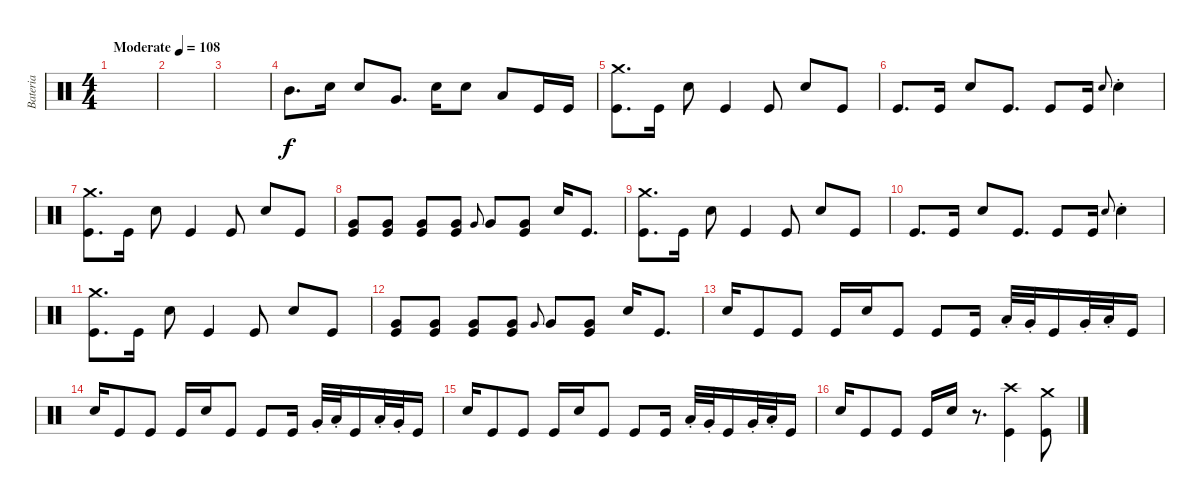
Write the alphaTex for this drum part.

\track ("Bateria" "Bateria") {instrument percussion}
\staff {score}
\articulation defaults
\ts (4 4)
\tempo (108 "Moderate")
\clef neutral
\ks c
|
|
|
"Mid Tom (hit)".8{d} "Electric Snare (hit)".16 "Electric Snare (hit)".8 "Very Low Tom (hit)".8{d} "Electric Snare (hit)".16 "Electric Snare (hit)".8 "Low Floor Tom (hit)".8 "Kick (hit)".16 "Kick (hit)".16 |
("Crash medium (hit)" "Kick (hit)").8{d} "Kick (hit)".16 "Snare (hit) 2".8 "Kick (hit)".4 "Kick (hit)".8 "Snare (hit) 2".8 "Kick (hit)".8 |
"Kick (hit)".8{d} "Kick (hit)".16 "Snare (hit) 2".8 "Kick (hit)".8{d} "Kick (hit)".8 "Kick (hit)".16 "Snare (hit) 2".8{gr onbeat} "Snare (hit) 2"{st}.4 |
("Crash medium (hit)" "Kick (hit)").8{d} "Kick (hit)".16 "Snare (hit) 2".8 "Kick (hit)".4 "Kick (hit)".8 "Snare (hit) 2".8 "Kick (hit)".8 |
("Very Low Tom (hit)" "Kick (hit)").8 ("Very Low Tom (hit)" "Kick (hit)").8 ("Very Low Tom (hit)" "Kick (hit)").8 ("Very Low Tom (hit)" "Kick (hit)").8 "Very Low Tom (hit)".8{gr onbeat} "Very Low Tom (hit)".8 ("Very Low Tom (hit)" "Kick (hit)").8 "Snare (hit) 2".16 "Kick (hit)".8{d} |
("Crash medium (hit)" "Kick (hit)").8{d} "Kick (hit)".16 "Snare (hit) 2".8 "Kick (hit)".4 "Kick (hit)".8 "Snare (hit) 2".8 "Kick (hit)".8 |
"Kick (hit)".8{d} "Kick (hit)".16 "Snare (hit) 2".8 "Kick (hit)".8{d} "Kick (hit)".8 "Kick (hit)".16 "Snare (hit) 2".8{gr onbeat} "Snare (hit) 2"{st}.4 |
("Crash medium (hit)" "Kick (hit)").8{d} "Kick (hit)".16 "Snare (hit) 2".8 "Kick (hit)".4 "Kick (hit)".8 "Snare (hit) 2".8 "Kick (hit)".8 |
("Very Low Tom (hit)" "Kick (hit)").8 ("Very Low Tom (hit)" "Kick (hit)").8 ("Very Low Tom (hit)" "Kick (hit)").8 ("Very Low Tom (hit)" "Kick (hit)").8 "Very Low Tom (hit)".8{gr onbeat} "Very Low Tom (hit)".8 ("Very Low Tom (hit)" "Kick (hit)").8 "Snare (hit) 2".16 "Kick (hit)".8{d} |
"Snare (hit) 2".16 "Kick (hit)".8 "Kick (hit)".8 "Kick (hit)".16 "Snare (hit) 2".16 "Kick (hit)".8 "Kick (hit)".8 "Kick (hit)".16 "Low Tom (hit)"{st}.32 "Very Low Tom (hit)"{st}.32 "Kick (hit)".16 "Very Low Tom (hit)"{st}.32 "Low Floor Tom (hit)"{st}.32 "Kick (hit)".16 |
"Snare (hit) 2".16 "Kick (hit)".8 "Kick (hit)".8 "Kick (hit)".16 "Snare (hit) 2".16 "Kick (hit)".8 "Kick (hit)".8 "Kick (hit)".16 "Very Low Tom (hit)"{st}.32 "Low Floor Tom (hit)"{st}.32 "Kick (hit)".16 "Low Tom (hit)"{st}.32 "Very Low Tom (hit)"{st}.32 "Kick (hit)".16 |
"Snare (hit) 2".16 "Kick (hit)".8 "Kick (hit)".8 "Kick (hit)".16 "Snare (hit) 2".16 "Kick (hit)".8 "Kick (hit)".8 "Kick (hit)".16 "Low Tom (hit)"{st}.32 "Very Low Tom (hit)"{st}.32 "Kick (hit)".16 "Very Low Tom (hit)"{st}.32 "Low Floor Tom (hit)"{st}.32 "Kick (hit)".16 |
"Snare (hit) 2".16 "Kick (hit)".8 "Kick (hit)".8 "Kick (hit)".16 "Snare (hit) 2".16 r.8{d} ("Crash high (hit)" "Kick (hit)").4 ("Crash medium (hit)" "Kick (hit)").8
